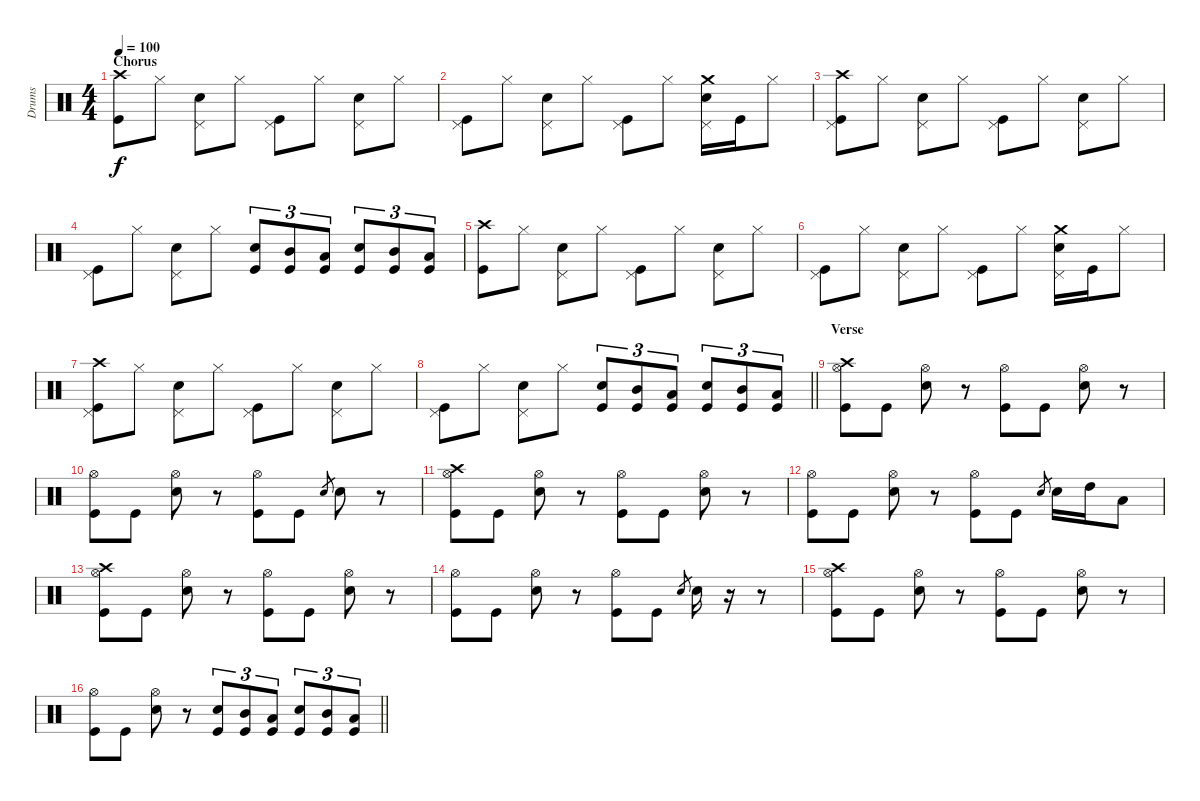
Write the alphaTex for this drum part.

\track ("Drums" "Drums") {instrument percussion}
\staff {score}
\articulation defaults
\ts (4 4)
\section ("" "Chorus")
\tempo 100
\clef neutral
\ks c
("Crash high (hit)" "Kick (hit)").8{dy f} "Hi-Hat (closed)".8 ("Pedal Hi-Hat (hit)" "Electric Snare (hit)").8 "Hi-Hat (closed)".8 ("Pedal Hi-Hat (hit)" "Kick (hit)").8 "Hi-Hat (closed)".8 ("Pedal Hi-Hat (hit)" "Electric Snare (hit)").8 "Hi-Hat (closed)".8 |
("Pedal Hi-Hat (hit)" "Kick (hit)").8 "Hi-Hat (closed)".8 ("Pedal Hi-Hat (hit)" "Electric Snare (hit)").8 "Hi-Hat (closed)".8 ("Pedal Hi-Hat (hit)" "Kick (hit)").8 "Hi-Hat (closed)".8 ("Crash medium (hit)" "Pedal Hi-Hat (hit)" "Electric Snare (hit)").16 "Kick (hit)".16 "Hi-Hat (closed)".8 |
("Crash high (hit)" "Pedal Hi-Hat (hit)" "Kick (hit)").8 "Hi-Hat (closed)".8 ("Pedal Hi-Hat (hit)" "Electric Snare (hit)").8 "Hi-Hat (closed)".8 ("Pedal Hi-Hat (hit)" "Kick (hit)").8 "Hi-Hat (closed)".8 ("Pedal Hi-Hat (hit)" "Electric Snare (hit)").8 "Hi-Hat (closed)".8 |
("Pedal Hi-Hat (hit)" "Kick (hit)").8 "Hi-Hat (closed)".8 ("Pedal Hi-Hat (hit)" "Electric Snare (hit)").8 "Hi-Hat (closed)".8 ("Electric Snare (hit)" "Kick (hit)").8{tu (3 2)} ("Mid Tom (hit)" "Kick (hit)").8{tu (3 2)} ("Low Tom (hit)" "Kick (hit)").8{tu (3 2)} ("Electric Snare (hit)" "Kick (hit)").8{tu (3 2)} ("Mid Tom (hit)" "Kick (hit)").8{tu (3 2)} ("Low Tom (hit)" "Kick (hit)").8{tu (3 2)} |
("Crash high (hit)" "Kick (hit)").8 "Hi-Hat (closed)".8 ("Pedal Hi-Hat (hit)" "Electric Snare (hit)").8 "Hi-Hat (closed)".8 ("Pedal Hi-Hat (hit)" "Kick (hit)").8 "Hi-Hat (closed)".8 ("Pedal Hi-Hat (hit)" "Electric Snare (hit)").8 "Hi-Hat (closed)".8 |
("Pedal Hi-Hat (hit)" "Kick (hit)").8 "Hi-Hat (closed)".8 ("Pedal Hi-Hat (hit)" "Electric Snare (hit)").8 "Hi-Hat (closed)".8 ("Pedal Hi-Hat (hit)" "Kick (hit)").8 "Hi-Hat (closed)".8 ("Crash medium (hit)" "Pedal Hi-Hat (hit)" "Electric Snare (hit)").16 "Kick (hit)".16 "Hi-Hat (closed)".8 |
("Crash high (hit)" "Pedal Hi-Hat (hit)" "Kick (hit)").8 "Hi-Hat (closed)".8 ("Pedal Hi-Hat (hit)" "Electric Snare (hit)").8 "Hi-Hat (closed)".8 ("Pedal Hi-Hat (hit)" "Kick (hit)").8 "Hi-Hat (closed)".8 ("Pedal Hi-Hat (hit)" "Electric Snare (hit)").8 "Hi-Hat (closed)".8 |
\barLineRight lightlight
("Pedal Hi-Hat (hit)" "Kick (hit)").8 "Hi-Hat (closed)".8 ("Pedal Hi-Hat (hit)" "Electric Snare (hit)").8 "Hi-Hat (closed)".8 ("Electric Snare (hit)" "Kick (hit)").8{tu (3 2)} ("Mid Tom (hit)" "Kick (hit)").8{tu (3 2)} ("Low Tom (hit)" "Kick (hit)").8{tu (3 2)} ("Electric Snare (hit)" "Kick (hit)").8{tu (3 2)} ("Mid Tom (hit)" "Kick (hit)").8{tu (3 2)} ("Low Tom (hit)" "Kick (hit)").8{tu (3 2)} |
\section ("" "Verse")
("Crash high (hit)" "Hi-Hat (open)" "Kick (hit)").8 "Kick (hit)".8 ("Hi-Hat (open)" "Electric Snare (hit)").8 r.8 ("Hi-Hat (open)" "Kick (hit)").8 "Kick (hit)".8 ("Hi-Hat (open)" "Electric Snare (hit)").8 r.8 |
("Hi-Hat (open)" "Kick (hit)").8 "Kick (hit)".8 ("Hi-Hat (open)" "Electric Snare (hit)").8 r.8 ("Hi-Hat (open)" "Kick (hit)").8 "Kick (hit)".8 "Electric Snare (hit)".8{gr} "Electric Snare (hit)".8 r.8 |
("Crash high (hit)" "Hi-Hat (open)" "Kick (hit)").8 "Kick (hit)".8 ("Hi-Hat (open)" "Electric Snare (hit)").8 r.8 ("Hi-Hat (open)" "Kick (hit)").8 "Kick (hit)".8 ("Hi-Hat (open)" "Electric Snare (hit)").8 r.8 |
("Hi-Hat (open)" "Kick (hit)").8 "Kick (hit)".8 ("Hi-Hat (open)" "Electric Snare (hit)").8 r.8 ("Hi-Hat (open)" "Kick (hit)").8 "Kick (hit)".8 "Electric Snare (hit)".8{gr} "Electric Snare (hit)".16 "High Tom (hit)".16 "Low Tom (hit)".8 |
("Crash high (hit)" "Hi-Hat (open)" "Kick (hit)").8 "Kick (hit)".8 ("Hi-Hat (open)" "Electric Snare (hit)").8 r.8 ("Hi-Hat (open)" "Kick (hit)").8 "Kick (hit)".8 ("Hi-Hat (open)" "Electric Snare (hit)").8 r.8 |
("Hi-Hat (open)" "Kick (hit)").8 "Kick (hit)".8 ("Hi-Hat (open)" "Electric Snare (hit)").8 r.8 ("Hi-Hat (open)" "Kick (hit)").8 "Kick (hit)".8 "Electric Snare (hit)".8{gr} "Electric Snare (hit)".16 r.16 r.8 |
("Crash high (hit)" "Hi-Hat (open)" "Kick (hit)").8 "Kick (hit)".8 ("Hi-Hat (open)" "Electric Snare (hit)").8 r.8 ("Hi-Hat (open)" "Kick (hit)").8 "Kick (hit)".8 ("Hi-Hat (open)" "Electric Snare (hit)").8 r.8 |
\barLineRight lightlight
("Hi-Hat (open)" "Kick (hit)").8 "Kick (hit)".8 ("Hi-Hat (open)" "Electric Snare (hit)").8 r.8 ("Electric Snare (hit)" "Kick (hit)").8{tu (3 2)} ("Mid Tom (hit)" "Kick (hit)").8{tu (3 2)} ("Low Tom (hit)" "Kick (hit)").8{tu (3 2)} ("Electric Snare (hit)" "Kick (hit)").8{tu (3 2)} ("Mid Tom (hit)" "Kick (hit)").8{tu (3 2)} ("Low Tom (hit)" "Kick (hit)").8{tu (3 2)}
